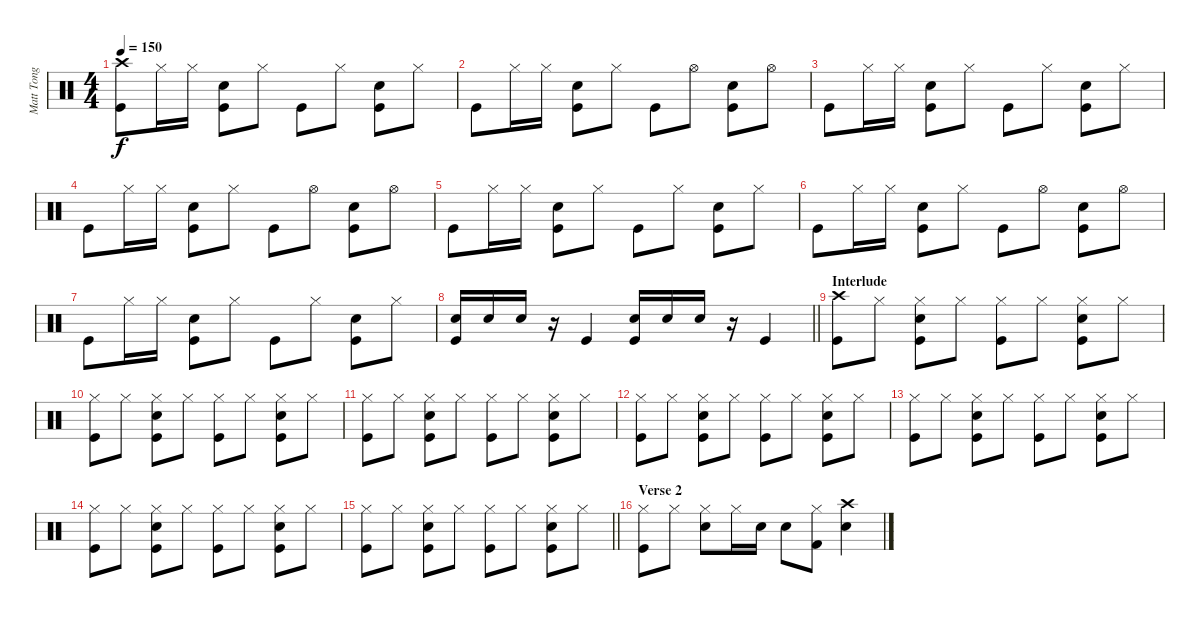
\track ("Matt Tong (Drums)" "Matt Tong ") {instrument percussion}
\staff {score}
\articulation defaults
\ts (4 4)
\tempo 150
\clef neutral
\ks c
("Crash high (hit)" "Kick (hit)").8{dy f} "Hi-Hat (closed)".16 "Hi-Hat (closed)".16 ("Electric Snare (hit)" "Kick (hit)").8 "Hi-Hat (closed)".8 "Kick (hit)".8 "Hi-Hat (closed)".8 ("Electric Snare (hit)" "Kick (hit)").8 "Hi-Hat (closed)".8 |
"Kick (hit)".8 "Hi-Hat (closed)".16 "Hi-Hat (closed)".16 ("Electric Snare (hit)" "Kick (hit)").8 "Hi-Hat (closed)".8 "Kick (hit)".8 "Hi-Hat (open)".8 ("Electric Snare (hit)" "Kick (hit)").8 "Hi-Hat (open)".8 |
"Kick (hit)".8 "Hi-Hat (closed)".16 "Hi-Hat (closed)".16 ("Electric Snare (hit)" "Kick (hit)").8 "Hi-Hat (closed)".8 "Kick (hit)".8 "Hi-Hat (closed)".8 ("Electric Snare (hit)" "Kick (hit)").8 "Hi-Hat (closed)".8 |
"Kick (hit)".8 "Hi-Hat (closed)".16 "Hi-Hat (closed)".16 ("Electric Snare (hit)" "Kick (hit)").8 "Hi-Hat (closed)".8 "Kick (hit)".8 "Hi-Hat (open)".8 ("Electric Snare (hit)" "Kick (hit)").8 "Hi-Hat (open)".8 |
"Kick (hit)".8 "Hi-Hat (closed)".16 "Hi-Hat (closed)".16 ("Electric Snare (hit)" "Kick (hit)").8 "Hi-Hat (closed)".8 "Kick (hit)".8 "Hi-Hat (closed)".8 ("Electric Snare (hit)" "Kick (hit)").8 "Hi-Hat (closed)".8 |
"Kick (hit)".8 "Hi-Hat (closed)".16 "Hi-Hat (closed)".16 ("Electric Snare (hit)" "Kick (hit)").8 "Hi-Hat (closed)".8 "Kick (hit)".8 "Hi-Hat (open)".8 ("Electric Snare (hit)" "Kick (hit)").8 "Hi-Hat (open)".8 |
"Kick (hit)".8 "Hi-Hat (closed)".16 "Hi-Hat (closed)".16 ("Electric Snare (hit)" "Kick (hit)").8 "Hi-Hat (closed)".8 "Kick (hit)".8 "Hi-Hat (closed)".8 ("Electric Snare (hit)" "Kick (hit)").8 "Hi-Hat (closed)".8 |
\barLineRight lightlight
("Electric Snare (hit)" "Kick (hit)").16 "Electric Snare (hit)".16 "Electric Snare (hit)".16 r.16 "Kick (hit)".4 ("Electric Snare (hit)" "Kick (hit)").16 "Electric Snare (hit)".16 "Electric Snare (hit)".16 r.16 "Kick (hit)".4 |
\section ("" "Interlude")
("Crash high (hit)" "Kick (hit)").8 "Hi-Hat (closed)".8 ("Hi-Hat (closed)" "Electric Snare (hit)" "Kick (hit)").8 "Hi-Hat (closed)".8 ("Hi-Hat (closed)" "Kick (hit)").8 "Hi-Hat (closed)".8 ("Hi-Hat (closed)" "Electric Snare (hit)" "Kick (hit)").8 "Hi-Hat (closed)".8 |
("Hi-Hat (closed)" "Kick (hit)").8 "Hi-Hat (closed)".8 ("Hi-Hat (closed)" "Electric Snare (hit)" "Kick (hit)").8 "Hi-Hat (closed)".8 ("Hi-Hat (closed)" "Kick (hit)").8 "Hi-Hat (closed)".8 ("Hi-Hat (closed)" "Electric Snare (hit)" "Kick (hit)").8 "Hi-Hat (closed)".8 |
("Hi-Hat (closed)" "Kick (hit)").8 "Hi-Hat (closed)".8 ("Hi-Hat (closed)" "Electric Snare (hit)" "Kick (hit)").8 "Hi-Hat (closed)".8 ("Hi-Hat (closed)" "Kick (hit)").8 "Hi-Hat (closed)".8 ("Hi-Hat (closed)" "Electric Snare (hit)" "Kick (hit)").8 "Hi-Hat (closed)".8 |
("Hi-Hat (closed)" "Kick (hit)").8 "Hi-Hat (closed)".8 ("Hi-Hat (closed)" "Electric Snare (hit)" "Kick (hit)").8 "Hi-Hat (closed)".8 ("Hi-Hat (closed)" "Kick (hit)").8 "Hi-Hat (closed)".8 ("Hi-Hat (closed)" "Electric Snare (hit)" "Kick (hit)").8 "Hi-Hat (closed)".8 |
("Hi-Hat (closed)" "Kick (hit)").8 "Hi-Hat (closed)".8 ("Hi-Hat (closed)" "Electric Snare (hit)" "Kick (hit)").8 "Hi-Hat (closed)".8 ("Hi-Hat (closed)" "Kick (hit)").8 "Hi-Hat (closed)".8 ("Hi-Hat (closed)" "Electric Snare (hit)" "Kick (hit)").8 "Hi-Hat (closed)".8 |
("Hi-Hat (closed)" "Kick (hit)").8 "Hi-Hat (closed)".8 ("Hi-Hat (closed)" "Electric Snare (hit)" "Kick (hit)").8 "Hi-Hat (closed)".8 ("Hi-Hat (closed)" "Kick (hit)").8 "Hi-Hat (closed)".8 ("Hi-Hat (closed)" "Electric Snare (hit)" "Kick (hit)").8 "Hi-Hat (closed)".8 |
\barLineRight lightlight
("Hi-Hat (closed)" "Kick (hit)").8 "Hi-Hat (closed)".8 ("Hi-Hat (closed)" "Electric Snare (hit)" "Kick (hit)").8 "Hi-Hat (closed)".8 ("Hi-Hat (closed)" "Kick (hit)").8 "Hi-Hat (closed)".8 ("Hi-Hat (closed)" "Electric Snare (hit)" "Kick (hit)").8 "Hi-Hat (closed)".8 |
\section ("" "Verse 2")
("Hi-Hat (closed)" "Kick (hit)").8 "Hi-Hat (closed)".8 ("Hi-Hat (closed)" "Electric Snare (hit)").8 "Hi-Hat (closed)".16 "Electric Snare (hit)".16 "Electric Snare (hit)".8 ("Hi-Hat (closed)" "Kick (hit) 2").8 ("Crash high (hit)" "Electric Snare (hit)").4
